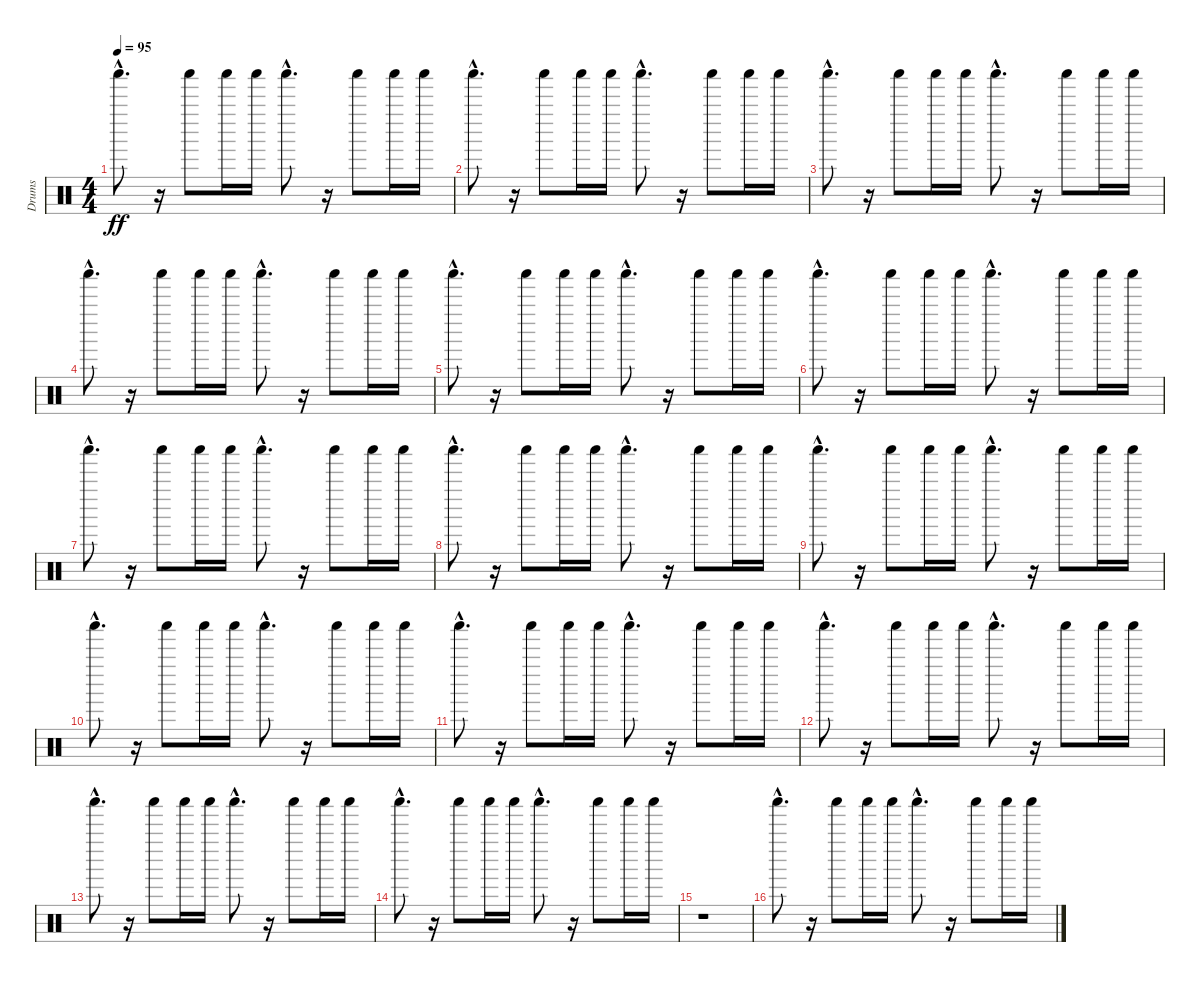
\track ("Drums" "Drums") {instrument percussion}
\staff {score}
\articulation defaults
\ts (4 4)
\tempo 95
\clef neutral
\ks c "Shaker (hit)"{hac}.8{d dy ff}
r.16 "Shaker (hit)".8 "Shaker (hit)".16 "Shaker (hit)".16 "Shaker (hit)"{hac}.8{d} r.16 "Shaker (hit)".8 "Shaker (hit)".16 "Shaker (hit)".16 |
"Shaker (hit)"{hac}.8{d} r.16 "Shaker (hit)".8 "Shaker (hit)".16 "Shaker (hit)".16 "Shaker (hit)"{hac}.8{d} r.16 "Shaker (hit)".8 "Shaker (hit)".16 "Shaker (hit)".16 |
"Shaker (hit)"{hac}.8{d} r.16 "Shaker (hit)".8 "Shaker (hit)".16 "Shaker (hit)".16 "Shaker (hit)"{hac}.8{d} r.16 "Shaker (hit)".8 "Shaker (hit)".16 "Shaker (hit)".16 |
"Shaker (hit)"{hac}.8{d} r.16 "Shaker (hit)".8 "Shaker (hit)".16 "Shaker (hit)".16 "Shaker (hit)"{hac}.8{d} r.16 "Shaker (hit)".8 "Shaker (hit)".16 "Shaker (hit)".16 |
"Shaker (hit)"{hac}.8{d} r.16 "Shaker (hit)".8 "Shaker (hit)".16 "Shaker (hit)".16 "Shaker (hit)"{hac}.8{d} r.16 "Shaker (hit)".8 "Shaker (hit)".16 "Shaker (hit)".16 |
"Shaker (hit)"{hac}.8{d} r.16 "Shaker (hit)".8 "Shaker (hit)".16 "Shaker (hit)".16 "Shaker (hit)"{hac}.8{d} r.16 "Shaker (hit)".8 "Shaker (hit)".16 "Shaker (hit)".16 |
"Shaker (hit)"{hac}.8{d} r.16 "Shaker (hit)".8 "Shaker (hit)".16 "Shaker (hit)".16 "Shaker (hit)"{hac}.8{d} r.16 "Shaker (hit)".8 "Shaker (hit)".16 "Shaker (hit)".16 |
"Shaker (hit)"{hac}.8{d} r.16 "Shaker (hit)".8 "Shaker (hit)".16 "Shaker (hit)".16 "Shaker (hit)"{hac}.8{d} r.16 "Shaker (hit)".8 "Shaker (hit)".16 "Shaker (hit)".16 |
"Shaker (hit)"{hac}.8{d} r.16 "Shaker (hit)".8 "Shaker (hit)".16 "Shaker (hit)".16 "Shaker (hit)"{hac}.8{d} r.16 "Shaker (hit)".8 "Shaker (hit)".16 "Shaker (hit)".16 |
"Shaker (hit)"{hac}.8{d} r.16 "Shaker (hit)".8 "Shaker (hit)".16 "Shaker (hit)".16 "Shaker (hit)"{hac}.8{d} r.16 "Shaker (hit)".8 "Shaker (hit)".16 "Shaker (hit)".16 |
"Shaker (hit)"{hac}.8{d} r.16 "Shaker (hit)".8 "Shaker (hit)".16 "Shaker (hit)".16 "Shaker (hit)"{hac}.8{d} r.16 "Shaker (hit)".8 "Shaker (hit)".16 "Shaker (hit)".16 |
"Shaker (hit)"{hac}.8{d} r.16 "Shaker (hit)".8 "Shaker (hit)".16 "Shaker (hit)".16 "Shaker (hit)"{hac}.8{d} r.16 "Shaker (hit)".8 "Shaker (hit)".16 "Shaker (hit)".16 |
"Shaker (hit)"{hac}.8{d} r.16 "Shaker (hit)".8 "Shaker (hit)".16 "Shaker (hit)".16 "Shaker (hit)"{hac}.8{d} r.16 "Shaker (hit)".8 "Shaker (hit)".16 "Shaker (hit)".16 |
"Shaker (hit)"{hac}.8{d} r.16 "Shaker (hit)".8 "Shaker (hit)".16 "Shaker (hit)".16 "Shaker (hit)"{hac}.8{d} r.16 "Shaker (hit)".8 "Shaker (hit)".16 "Shaker (hit)".16 |
r.1 |
"Shaker (hit)"{hac}.8{d} r.16 "Shaker (hit)".8 "Shaker (hit)".16 "Shaker (hit)".16 "Shaker (hit)"{hac}.8{d} r.16 "Shaker (hit)".8 "Shaker (hit)".16 "Shaker (hit)".16
